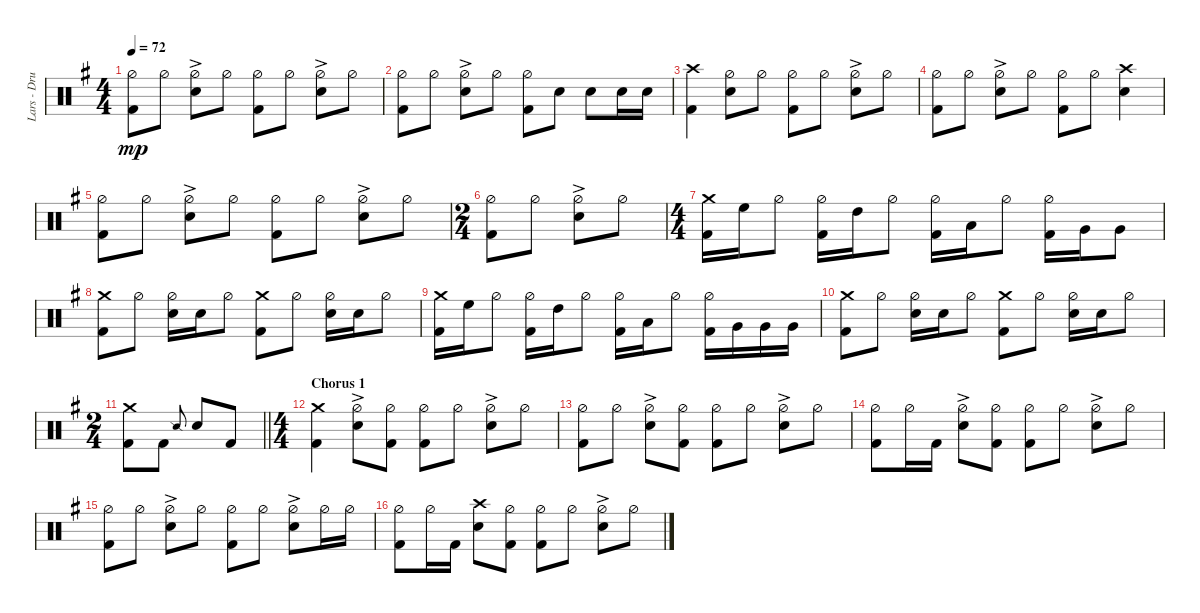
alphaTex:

\track ("Lars - Drums" "Lars - Dru") {instrument percussion}
\staff {score}
\articulation defaults
\ts (4 4)
\tempo 72
\clef neutral
\ks eminor
("Hi-Hat (half)" "Kick (hit) 2").8{dy mp} "Hi-Hat (half)".8 ("Hi-Hat (half)"{ac} "Snare (hit) 2").8 "Hi-Hat (half)".8 ("Hi-Hat (half)" "Kick (hit) 2").8 "Hi-Hat (half)".8 ("Hi-Hat (half)"{ac} "Snare (hit) 2").8 "Hi-Hat (half)".8 |
("Hi-Hat (half)" "Kick (hit) 2").8 "Hi-Hat (half)".8 ("Hi-Hat (half)"{ac} "Snare (hit) 2").8 "Hi-Hat (half)".8 ("Hi-Hat (half)" "Kick (hit) 2").8 "Snare (hit) 2".8 "Snare (hit) 2".8 "Snare (hit) 2".16 "Snare (hit) 2".16 |
("Crash high (hit)" "Kick (hit) 2").4 ("Hi-Hat (half)" "Snare (hit) 2").8 "Hi-Hat (half)".8 ("Hi-Hat (half)" "Kick (hit) 2").8 "Hi-Hat (half)".8 ("Hi-Hat (half)"{ac} "Snare (hit) 2").8 "Hi-Hat (half)".8 |
("Hi-Hat (half)" "Kick (hit) 2").8 "Hi-Hat (half)".8 ("Hi-Hat (half)"{ac} "Snare (hit) 2").8 "Hi-Hat (half)".8 ("Hi-Hat (half)" "Kick (hit) 2").8 "Hi-Hat (half)".8 ("Snare (hit) 2" "Crash high (hit)").4 |
("Hi-Hat (half)" "Kick (hit) 2").8 "Hi-Hat (half)".8 ("Hi-Hat (half)"{ac} "Snare (hit) 2").8 "Hi-Hat (half)".8 ("Hi-Hat (half)" "Kick (hit) 2").8 "Hi-Hat (half)".8 ("Hi-Hat (half)"{ac} "Snare (hit) 2").8 "Hi-Hat (half)".8 |
\ts (2 4)
("Hi-Hat (half)" "Kick (hit) 2").8 "Hi-Hat (half)".8 ("Hi-Hat (half)"{ac} "Snare (hit) 2").8 "Hi-Hat (half)".8 |
\ts (4 4)
("Crash medium (hit)" "Kick (hit) 2").16 "High Floor Tom (hit)".16 "Hi-Hat (half)".8 ("Kick (hit) 2" "Hi-Hat (half)").16 "High Tom (hit)".16 "Hi-Hat (half)".8 ("Hi-Hat (half)" "Kick (hit) 2").16 "Low Tom (hit)".16 "Hi-Hat (half)".8 ("Hi-Hat (half)" "Kick (hit) 2").16 "Very Low Tom (hit)".16 "Very Low Tom (hit)".8 |
("Kick (hit) 2" "Crash medium (hit)").8 "Hi-Hat (half)".8 ("Hi-Hat (half)" "Snare (hit) 2").16 "Snare (hit) 2".16 "Hi-Hat (half)".8 ("Kick (hit) 2" "Crash medium (hit)").8 "Hi-Hat (half)".8 ("Hi-Hat (half)" "Snare (hit) 2").16 "Snare (hit) 2".16 "Hi-Hat (half)".8 |
("Crash medium (hit)" "Kick (hit) 2").16 "High Floor Tom (hit)".16 "Hi-Hat (half)".8 ("Kick (hit) 2" "Hi-Hat (half)").16 "High Tom (hit)".16 "Hi-Hat (half)".8 ("Hi-Hat (half)" "Kick (hit) 2").16 "Low Tom (hit)".16 "Hi-Hat (half)".8 ("Hi-Hat (half)" "Kick (hit) 2").16 "Very Low Tom (hit)".16 "Very Low Tom (hit)".16 "Very Low Tom (hit)".16 |
("Kick (hit) 2" "Crash medium (hit)").8 "Hi-Hat (half)".8 ("Hi-Hat (half)" "Snare (hit) 2").16 "Snare (hit) 2".16 "Hi-Hat (half)".8 ("Kick (hit) 2" "Crash medium (hit)").8 "Hi-Hat (half)".8 ("Hi-Hat (half)" "Snare (hit) 2").16 "Snare (hit) 2".16 "Hi-Hat (half)".8 |
\ts (2 4)
\barLineRight lightlight
("Crash medium (hit)" "Kick (hit) 2").8 "Kick (hit) 2".8 "Snare (side stick) 2".8{gr onbeat} "Snare (hit) 2".8 "Kick (hit) 2".8 |
\ts (4 4)
\section ("" "Chorus 1")
("Crash medium (hit)" "Kick (hit) 2").4{volume 6} ("Hi-Hat (half)"{ac} "Snare (hit) 2").8 ("Hi-Hat (half)" "Kick (hit) 2").8 ("Hi-Hat (half)" "Kick (hit) 2").8 "Hi-Hat (half)".8 ("Hi-Hat (half)"{ac} "Snare (hit) 2").8 "Hi-Hat (half)".8 |
("Hi-Hat (half)" "Kick (hit) 2").8 "Hi-Hat (half)".8 ("Hi-Hat (half)"{ac} "Snare (hit) 2").8 ("Hi-Hat (half)" "Kick (hit) 2").8 ("Hi-Hat (half)" "Kick (hit) 2").8 "Hi-Hat (half)".8 ("Hi-Hat (half)"{ac} "Snare (hit) 2").8 "Hi-Hat (half)".8 |
("Hi-Hat (half)" "Kick (hit) 2").8 "Hi-Hat (half)".16 "Kick (hit) 2".16 ("Hi-Hat (half)"{ac} "Snare (hit) 2").8 ("Hi-Hat (half)" "Kick (hit) 2").8 ("Hi-Hat (half)" "Kick (hit) 2").8 "Hi-Hat (half)".8 ("Hi-Hat (half)"{ac} "Snare (hit) 2").8 "Hi-Hat (half)".8 |
("Hi-Hat (half)" "Kick (hit) 2").8 "Hi-Hat (half)".8 ("Hi-Hat (half)"{ac} "Snare (hit) 2").8 "Hi-Hat (half)".8 ("Hi-Hat (half)" "Kick (hit) 2").8 "Hi-Hat (half)".8 ("Hi-Hat (half)"{ac} "Snare (hit) 2").8 "Hi-Hat (half)".16 "Hi-Hat (half)".16 |
("Hi-Hat (half)" "Kick (hit) 2").8 "Hi-Hat (half)".16 "Kick (hit) 2".16 ("Crash high (hit)" "Snare (hit) 2").8 ("Hi-Hat (half)" "Kick (hit) 2").8 ("Hi-Hat (half)" "Kick (hit) 2").8 "Hi-Hat (half)".8 ("Hi-Hat (half)"{ac} "Snare (hit) 2").8 "Hi-Hat (half)".8
